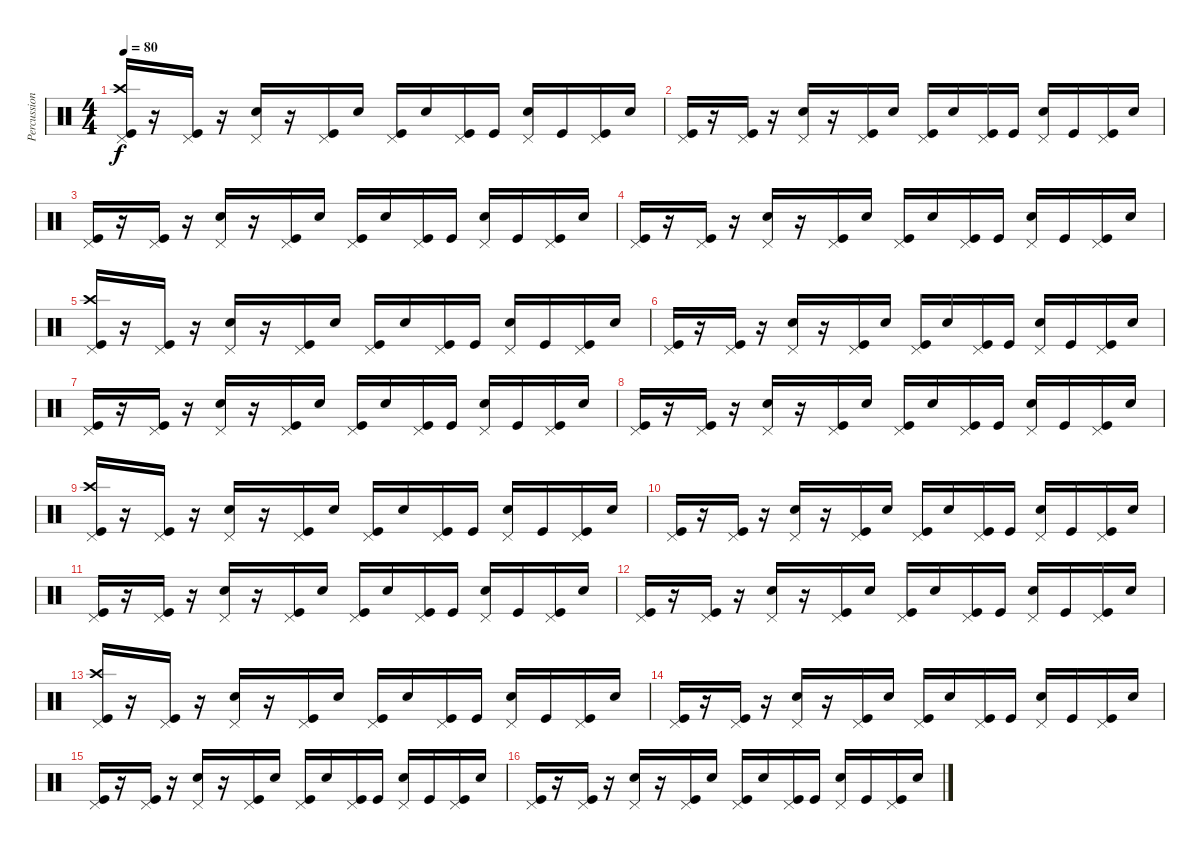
\track ("Percussions" "Percussion") {instrument percussion}
\staff {score}
\articulation defaults
\ts (4 4)
\tempo 80
\clef neutral
\ks c
("Pedal Hi-Hat (hit)" "Crash high (hit)" "Kick (hit)").16{dy f} r.16 ("Pedal Hi-Hat (hit)" "Kick (hit)").16 r.16 ("Pedal Hi-Hat (hit)" "Electric Snare (hit)").16 r.16 ("Pedal Hi-Hat (hit)" "Kick (hit)").16 "Electric Snare (hit)".16 ("Pedal Hi-Hat (hit)" "Kick (hit)").16 "Electric Snare (hit)".16 ("Pedal Hi-Hat (hit)" "Kick (hit)").16 "Kick (hit)".16 ("Pedal Hi-Hat (hit)" "Electric Snare (hit)").16 "Kick (hit)".16 ("Pedal Hi-Hat (hit)" "Kick (hit)").16 "Electric Snare (hit)".16 |
("Pedal Hi-Hat (hit)" "Kick (hit)").16 r.16 ("Pedal Hi-Hat (hit)" "Kick (hit)").16 r.16 ("Pedal Hi-Hat (hit)" "Electric Snare (hit)").16 r.16 ("Pedal Hi-Hat (hit)" "Kick (hit)").16 "Electric Snare (hit)".16 ("Pedal Hi-Hat (hit)" "Kick (hit)").16 "Electric Snare (hit)".16 ("Pedal Hi-Hat (hit)" "Kick (hit)").16 "Kick (hit)".16 ("Pedal Hi-Hat (hit)" "Electric Snare (hit)").16 "Kick (hit)".16 ("Pedal Hi-Hat (hit)" "Kick (hit)").16 "Electric Snare (hit)".16 |
("Pedal Hi-Hat (hit)" "Kick (hit)").16 r.16 ("Pedal Hi-Hat (hit)" "Kick (hit)").16 r.16 ("Pedal Hi-Hat (hit)" "Electric Snare (hit)").16 r.16 ("Pedal Hi-Hat (hit)" "Kick (hit)").16 "Electric Snare (hit)".16 ("Pedal Hi-Hat (hit)" "Kick (hit)").16 "Electric Snare (hit)".16 ("Pedal Hi-Hat (hit)" "Kick (hit)").16 "Kick (hit)".16 ("Pedal Hi-Hat (hit)" "Electric Snare (hit)").16 "Kick (hit)".16 ("Pedal Hi-Hat (hit)" "Kick (hit)").16 "Electric Snare (hit)".16 |
("Pedal Hi-Hat (hit)" "Kick (hit)").16 r.16 ("Pedal Hi-Hat (hit)" "Kick (hit)").16 r.16 ("Pedal Hi-Hat (hit)" "Electric Snare (hit)").16 r.16 ("Pedal Hi-Hat (hit)" "Kick (hit)").16 "Electric Snare (hit)".16 ("Pedal Hi-Hat (hit)" "Kick (hit)").16 "Electric Snare (hit)".16 ("Pedal Hi-Hat (hit)" "Kick (hit)").16 "Kick (hit)".16 ("Pedal Hi-Hat (hit)" "Electric Snare (hit)").16 "Kick (hit)".16 ("Pedal Hi-Hat (hit)" "Kick (hit)").16 "Electric Snare (hit)".16 |
("Pedal Hi-Hat (hit)" "Crash high (hit)" "Kick (hit)").16 r.16 ("Pedal Hi-Hat (hit)" "Kick (hit)").16 r.16 ("Pedal Hi-Hat (hit)" "Electric Snare (hit)").16 r.16 ("Pedal Hi-Hat (hit)" "Kick (hit)").16 "Electric Snare (hit)".16 ("Pedal Hi-Hat (hit)" "Kick (hit)").16 "Electric Snare (hit)".16 ("Pedal Hi-Hat (hit)" "Kick (hit)").16 "Kick (hit)".16 ("Pedal Hi-Hat (hit)" "Electric Snare (hit)").16 "Kick (hit)".16 ("Pedal Hi-Hat (hit)" "Kick (hit)").16 "Electric Snare (hit)".16 |
("Pedal Hi-Hat (hit)" "Kick (hit)").16 r.16 ("Pedal Hi-Hat (hit)" "Kick (hit)").16 r.16 ("Pedal Hi-Hat (hit)" "Electric Snare (hit)").16 r.16 ("Pedal Hi-Hat (hit)" "Kick (hit)").16 "Electric Snare (hit)".16 ("Pedal Hi-Hat (hit)" "Kick (hit)").16 "Electric Snare (hit)".16 ("Pedal Hi-Hat (hit)" "Kick (hit)").16 "Kick (hit)".16 ("Pedal Hi-Hat (hit)" "Electric Snare (hit)").16 "Kick (hit)".16 ("Pedal Hi-Hat (hit)" "Kick (hit)").16 "Electric Snare (hit)".16 |
("Pedal Hi-Hat (hit)" "Kick (hit)").16 r.16 ("Pedal Hi-Hat (hit)" "Kick (hit)").16 r.16 ("Pedal Hi-Hat (hit)" "Electric Snare (hit)").16 r.16 ("Pedal Hi-Hat (hit)" "Kick (hit)").16 "Electric Snare (hit)".16 ("Pedal Hi-Hat (hit)" "Kick (hit)").16 "Electric Snare (hit)".16 ("Pedal Hi-Hat (hit)" "Kick (hit)").16 "Kick (hit)".16 ("Pedal Hi-Hat (hit)" "Electric Snare (hit)").16 "Kick (hit)".16 ("Pedal Hi-Hat (hit)" "Kick (hit)").16 "Electric Snare (hit)".16 |
("Pedal Hi-Hat (hit)" "Kick (hit)").16 r.16 ("Pedal Hi-Hat (hit)" "Kick (hit)").16 r.16 ("Pedal Hi-Hat (hit)" "Electric Snare (hit)").16 r.16 ("Pedal Hi-Hat (hit)" "Kick (hit)").16 "Electric Snare (hit)".16 ("Pedal Hi-Hat (hit)" "Kick (hit)").16 "Electric Snare (hit)".16 ("Pedal Hi-Hat (hit)" "Kick (hit)").16 "Kick (hit)".16 ("Pedal Hi-Hat (hit)" "Electric Snare (hit)").16 "Kick (hit)".16 ("Pedal Hi-Hat (hit)" "Kick (hit)").16 "Electric Snare (hit)".16 |
("Pedal Hi-Hat (hit)" "Crash high (hit)" "Kick (hit)").16 r.16 ("Pedal Hi-Hat (hit)" "Kick (hit)").16 r.16 ("Pedal Hi-Hat (hit)" "Electric Snare (hit)").16 r.16 ("Pedal Hi-Hat (hit)" "Kick (hit)").16 "Electric Snare (hit)".16 ("Pedal Hi-Hat (hit)" "Kick (hit)").16 "Electric Snare (hit)".16 ("Pedal Hi-Hat (hit)" "Kick (hit)").16 "Kick (hit)".16 ("Pedal Hi-Hat (hit)" "Electric Snare (hit)").16 "Kick (hit)".16 ("Pedal Hi-Hat (hit)" "Kick (hit)").16 "Electric Snare (hit)".16 |
("Pedal Hi-Hat (hit)" "Kick (hit)").16 r.16 ("Pedal Hi-Hat (hit)" "Kick (hit)").16 r.16 ("Pedal Hi-Hat (hit)" "Electric Snare (hit)").16 r.16 ("Pedal Hi-Hat (hit)" "Kick (hit)").16 "Electric Snare (hit)".16 ("Pedal Hi-Hat (hit)" "Kick (hit)").16 "Electric Snare (hit)".16 ("Pedal Hi-Hat (hit)" "Kick (hit)").16 "Kick (hit)".16 ("Pedal Hi-Hat (hit)" "Electric Snare (hit)").16 "Kick (hit)".16 ("Pedal Hi-Hat (hit)" "Kick (hit)").16 "Electric Snare (hit)".16 |
("Pedal Hi-Hat (hit)" "Kick (hit)").16 r.16 ("Pedal Hi-Hat (hit)" "Kick (hit)").16 r.16 ("Pedal Hi-Hat (hit)" "Electric Snare (hit)").16 r.16 ("Pedal Hi-Hat (hit)" "Kick (hit)").16 "Electric Snare (hit)".16 ("Pedal Hi-Hat (hit)" "Kick (hit)").16 "Electric Snare (hit)".16 ("Pedal Hi-Hat (hit)" "Kick (hit)").16 "Kick (hit)".16 ("Pedal Hi-Hat (hit)" "Electric Snare (hit)").16 "Kick (hit)".16 ("Pedal Hi-Hat (hit)" "Kick (hit)").16 "Electric Snare (hit)".16 |
("Pedal Hi-Hat (hit)" "Kick (hit)").16 r.16 ("Pedal Hi-Hat (hit)" "Kick (hit)").16 r.16 ("Pedal Hi-Hat (hit)" "Electric Snare (hit)").16 r.16 ("Pedal Hi-Hat (hit)" "Kick (hit)").16 "Electric Snare (hit)".16 ("Pedal Hi-Hat (hit)" "Kick (hit)").16 "Electric Snare (hit)".16 ("Pedal Hi-Hat (hit)" "Kick (hit)").16 "Kick (hit)".16 ("Pedal Hi-Hat (hit)" "Electric Snare (hit)").16 "Kick (hit)".16 ("Pedal Hi-Hat (hit)" "Kick (hit)").16 "Electric Snare (hit)".16 |
("Pedal Hi-Hat (hit)" "Crash high (hit)" "Kick (hit)").16 r.16 ("Pedal Hi-Hat (hit)" "Kick (hit)").16 r.16 ("Pedal Hi-Hat (hit)" "Electric Snare (hit)").16 r.16 ("Pedal Hi-Hat (hit)" "Kick (hit)").16 "Electric Snare (hit)".16 ("Pedal Hi-Hat (hit)" "Kick (hit)").16 "Electric Snare (hit)".16 ("Pedal Hi-Hat (hit)" "Kick (hit)").16 "Kick (hit)".16 ("Pedal Hi-Hat (hit)" "Electric Snare (hit)").16 "Kick (hit)".16 ("Pedal Hi-Hat (hit)" "Kick (hit)").16 "Electric Snare (hit)".16 |
("Pedal Hi-Hat (hit)" "Kick (hit)").16 r.16 ("Pedal Hi-Hat (hit)" "Kick (hit)").16 r.16 ("Pedal Hi-Hat (hit)" "Electric Snare (hit)").16 r.16 ("Pedal Hi-Hat (hit)" "Kick (hit)").16 "Electric Snare (hit)".16 ("Pedal Hi-Hat (hit)" "Kick (hit)").16 "Electric Snare (hit)".16 ("Pedal Hi-Hat (hit)" "Kick (hit)").16 "Kick (hit)".16 ("Pedal Hi-Hat (hit)" "Electric Snare (hit)").16 "Kick (hit)".16 ("Pedal Hi-Hat (hit)" "Kick (hit)").16 "Electric Snare (hit)".16 |
("Pedal Hi-Hat (hit)" "Kick (hit)").16 r.16 ("Pedal Hi-Hat (hit)" "Kick (hit)").16 r.16 ("Pedal Hi-Hat (hit)" "Electric Snare (hit)").16 r.16 ("Pedal Hi-Hat (hit)" "Kick (hit)").16 "Electric Snare (hit)".16 ("Pedal Hi-Hat (hit)" "Kick (hit)").16 "Electric Snare (hit)".16 ("Pedal Hi-Hat (hit)" "Kick (hit)").16 "Kick (hit)".16 ("Pedal Hi-Hat (hit)" "Electric Snare (hit)").16 "Kick (hit)".16 ("Pedal Hi-Hat (hit)" "Kick (hit)").16 "Electric Snare (hit)".16 |
("Pedal Hi-Hat (hit)" "Kick (hit)").16 r.16 ("Pedal Hi-Hat (hit)" "Kick (hit)").16 r.16 ("Pedal Hi-Hat (hit)" "Electric Snare (hit)").16 r.16 ("Pedal Hi-Hat (hit)" "Kick (hit)").16 "Electric Snare (hit)".16 ("Pedal Hi-Hat (hit)" "Kick (hit)").16 "Electric Snare (hit)".16 ("Pedal Hi-Hat (hit)" "Kick (hit)").16 "Kick (hit)".16 ("Pedal Hi-Hat (hit)" "Electric Snare (hit)").16 "Kick (hit)".16 ("Pedal Hi-Hat (hit)" "Kick (hit)").16 "Electric Snare (hit)".16
